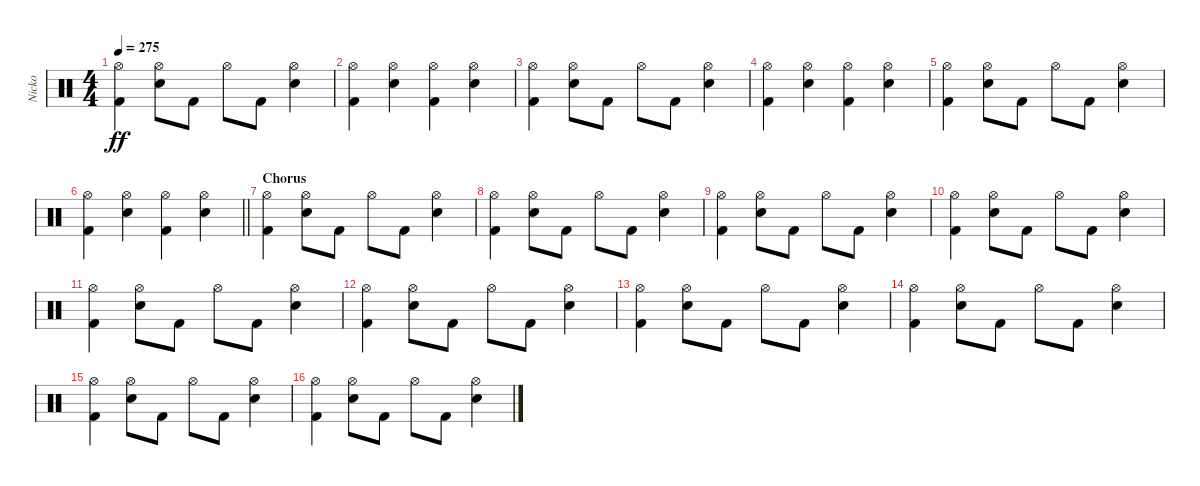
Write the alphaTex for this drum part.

\track ("Nicko" "Nicko") {instrument percussion}
\staff {score}
\articulation defaults
\ts (4 4)
\tempo 275
\clef neutral
\ks c
("Kick (hit) 2" "Hi-Hat (open)").4{dy ff} ("Snare (hit) 2" "Hi-Hat (open)").8 "Kick (hit) 2".8 "Hi-Hat (open)".8 "Kick (hit) 2".8 ("Snare (hit) 2" "Hi-Hat (open)").4 |
("Kick (hit) 2" "Hi-Hat (open)").4 ("Snare (hit) 2" "Hi-Hat (open)").4 ("Kick (hit) 2" "Hi-Hat (open)").4 ("Snare (hit) 2" "Hi-Hat (open)").4 |
("Kick (hit) 2" "Hi-Hat (open)").4 ("Snare (hit) 2" "Hi-Hat (open)").8 "Kick (hit) 2".8 "Hi-Hat (open)".8 "Kick (hit) 2".8 ("Snare (hit) 2" "Hi-Hat (open)").4 |
("Kick (hit) 2" "Hi-Hat (open)").4 ("Snare (hit) 2" "Hi-Hat (open)").4 ("Kick (hit) 2" "Hi-Hat (open)").4 ("Snare (hit) 2" "Hi-Hat (open)").4 |
("Kick (hit) 2" "Hi-Hat (open)").4 ("Snare (hit) 2" "Hi-Hat (open)").8 "Kick (hit) 2".8 "Hi-Hat (open)".8 "Kick (hit) 2".8 ("Snare (hit) 2" "Hi-Hat (open)").4 |
\barLineRight lightlight
("Kick (hit) 2" "Hi-Hat (open)").4 ("Snare (hit) 2" "Hi-Hat (open)").4 ("Kick (hit) 2" "Hi-Hat (open)").4 ("Snare (hit) 2" "Hi-Hat (open)").4 |
\section ("" "Chorus")
("Kick (hit) 2" "Hi-Hat (open)").4 ("Snare (hit) 2" "Hi-Hat (open)").8 "Kick (hit) 2".8 "Hi-Hat (open)".8 "Kick (hit) 2".8 ("Snare (hit) 2" "Hi-Hat (open)").4 |
("Kick (hit) 2" "Hi-Hat (open)").4 ("Snare (hit) 2" "Hi-Hat (open)").8 "Kick (hit) 2".8 "Hi-Hat (open)".8 "Kick (hit) 2".8 ("Snare (hit) 2" "Hi-Hat (open)").4 |
("Kick (hit) 2" "Hi-Hat (open)").4 ("Snare (hit) 2" "Hi-Hat (open)").8 "Kick (hit) 2".8 "Hi-Hat (open)".8 "Kick (hit) 2".8 ("Snare (hit) 2" "Hi-Hat (open)").4 |
("Kick (hit) 2" "Hi-Hat (open)").4 ("Snare (hit) 2" "Hi-Hat (open)").8 "Kick (hit) 2".8 "Hi-Hat (open)".8 "Kick (hit) 2".8 ("Snare (hit) 2" "Hi-Hat (open)").4 |
("Kick (hit) 2" "Hi-Hat (open)").4 ("Snare (hit) 2" "Hi-Hat (open)").8 "Kick (hit) 2".8 "Hi-Hat (open)".8 "Kick (hit) 2".8 ("Snare (hit) 2" "Hi-Hat (open)").4 |
("Kick (hit) 2" "Hi-Hat (open)").4 ("Snare (hit) 2" "Hi-Hat (open)").8 "Kick (hit) 2".8 "Hi-Hat (open)".8 "Kick (hit) 2".8 ("Snare (hit) 2" "Hi-Hat (open)").4 |
("Kick (hit) 2" "Hi-Hat (open)").4 ("Snare (hit) 2" "Hi-Hat (open)").8 "Kick (hit) 2".8 "Hi-Hat (open)".8 "Kick (hit) 2".8 ("Snare (hit) 2" "Hi-Hat (open)").4 |
("Kick (hit) 2" "Hi-Hat (open)").4 ("Snare (hit) 2" "Hi-Hat (open)").8 "Kick (hit) 2".8 "Hi-Hat (open)".8 "Kick (hit) 2".8 ("Snare (hit) 2" "Hi-Hat (open)").4 |
("Kick (hit) 2" "Hi-Hat (open)").4 ("Snare (hit) 2" "Hi-Hat (open)").8 "Kick (hit) 2".8 "Hi-Hat (open)".8 "Kick (hit) 2".8 ("Snare (hit) 2" "Hi-Hat (open)").4 |
("Kick (hit) 2" "Hi-Hat (open)").4 ("Snare (hit) 2" "Hi-Hat (open)").8 "Kick (hit) 2".8 "Hi-Hat (open)".8 "Kick (hit) 2".8 ("Snare (hit) 2" "Hi-Hat (open)").4
